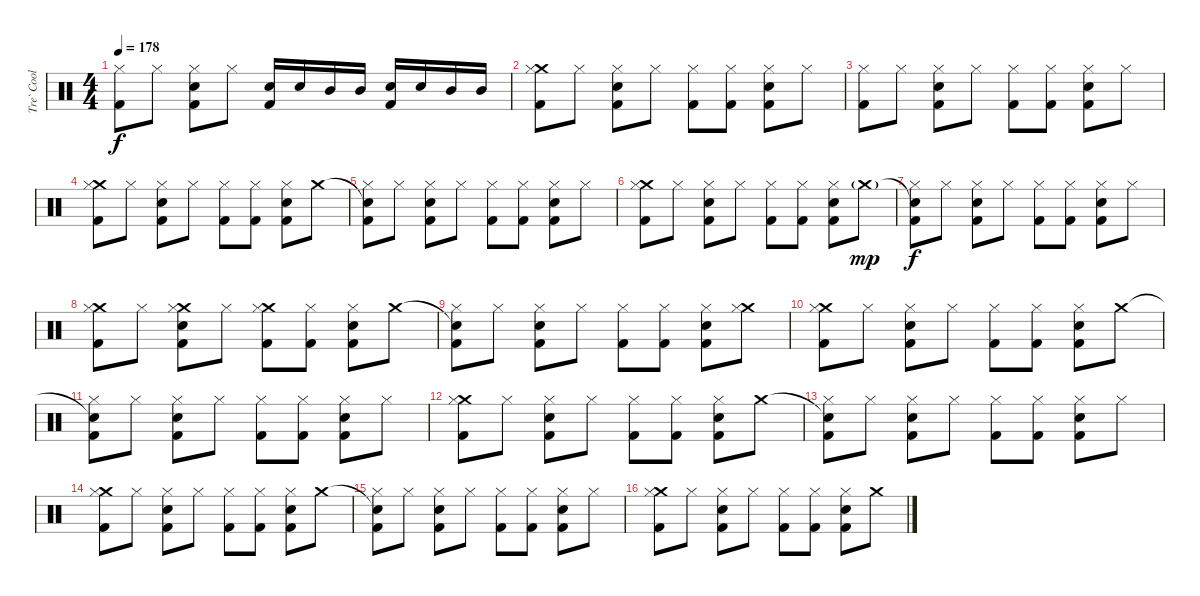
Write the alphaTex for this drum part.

\track ("Tre` Cool (Drums)" "Tre` Cool ") {instrument percussion}
\staff {score}
\articulation defaults
\ts (4 4)
\tempo 178
\clef neutral
\ks c
("Hi-Hat (closed)" "Kick (hit) 2").8{dy f} "Hi-Hat (closed)".8 ("Hi-Hat (closed)" "Snare (hit) 2" "Kick (hit) 2").8 "Hi-Hat (closed)".8 ("Snare (hit) 2" "Kick (hit) 2").16 "Snare (hit) 2".16 "Mid Tom (hit)".16 "Mid Tom (hit)".16 ("Snare (hit) 2" "Kick (hit) 2").16 "Snare (hit) 2".16 "Mid Tom (hit)".16 "Mid Tom (hit)".16 |
("Crash medium (hit)" "Hi-Hat (closed)" "Kick (hit) 2").8 "Hi-Hat (closed)".8 ("Hi-Hat (closed)" "Snare (hit) 2" "Kick (hit) 2").8 "Hi-Hat (closed)".8 ("Hi-Hat (closed)" "Kick (hit) 2").8 ("Hi-Hat (closed)" "Kick (hit) 2").8 ("Hi-Hat (closed)" "Snare (hit) 2" "Kick (hit) 2").8 "Hi-Hat (closed)".8 |
("Hi-Hat (closed)" "Kick (hit) 2").8 "Hi-Hat (closed)".8 ("Hi-Hat (closed)" "Snare (hit) 2" "Kick (hit) 2").8 "Hi-Hat (closed)".8 ("Hi-Hat (closed)" "Kick (hit) 2").8 ("Hi-Hat (closed)" "Kick (hit) 2").8 ("Hi-Hat (closed)" "Snare (hit) 2" "Kick (hit) 2").8 "Hi-Hat (closed)".8 |
("Crash medium (hit)" "Hi-Hat (closed)" "Kick (hit) 2").8 "Hi-Hat (closed)".8 ("Hi-Hat (closed)" "Snare (hit) 2" "Kick (hit) 2").8 "Hi-Hat (closed)".8 ("Hi-Hat (closed)" "Kick (hit) 2").8 ("Hi-Hat (closed)" "Kick (hit) 2").8 ("Hi-Hat (closed)" "Snare (hit) 2" "Kick (hit) 2").8 "Crash medium (hit)".8 |
("Snare (hit)"{t} "Hi-Hat (closed)" "Kick (hit) 2").8 "Hi-Hat (closed)".8 ("Hi-Hat (closed)" "Snare (hit) 2" "Kick (hit) 2").8 "Hi-Hat (closed)".8 ("Hi-Hat (closed)" "Kick (hit) 2").8 ("Hi-Hat (closed)" "Kick (hit) 2").8 ("Hi-Hat (closed)" "Snare (hit) 2" "Kick (hit) 2").8 "Hi-Hat (closed)".8 |
("Crash medium (hit)" "Hi-Hat (closed)" "Kick (hit) 2").8 "Hi-Hat (closed)".8 ("Hi-Hat (closed)" "Snare (hit) 2" "Kick (hit) 2").8 "Hi-Hat (closed)".8 ("Hi-Hat (closed)" "Kick (hit) 2").8 ("Hi-Hat (closed)" "Kick (hit) 2").8 ("Hi-Hat (closed)" "Snare (hit) 2" "Kick (hit) 2").8 "Crash medium (hit)"{g}.8{dy mp} |
("Snare (hit)"{t} "Hi-Hat (closed)" "Kick (hit) 2").8{dy f} "Hi-Hat (closed)".8 ("Hi-Hat (closed)" "Snare (hit) 2" "Kick (hit) 2").8 "Hi-Hat (closed)".8 ("Hi-Hat (closed)" "Kick (hit) 2").8 ("Hi-Hat (closed)" "Kick (hit) 2").8 ("Hi-Hat (closed)" "Snare (hit) 2" "Kick (hit) 2").8 "Hi-Hat (closed)".8 |
("Crash medium (hit)" "Hi-Hat (closed)" "Kick (hit) 2").8 "Hi-Hat (closed)".8 ("Crash medium (hit)" "Hi-Hat (closed)" "Snare (hit) 2" "Kick (hit) 2").8 "Hi-Hat (closed)".8 ("Crash medium (hit)" "Hi-Hat (closed)" "Kick (hit) 2").8 ("Hi-Hat (closed)" "Kick (hit) 2").8 ("Hi-Hat (closed)" "Snare (hit) 2" "Kick (hit) 2").8 "Crash medium (hit)".8 |
("Snare (hit)"{t} "Hi-Hat (closed)" "Kick (hit) 2").8 "Hi-Hat (closed)".8 ("Hi-Hat (closed)" "Snare (hit) 2" "Kick (hit) 2").8 "Hi-Hat (closed)".8 ("Hi-Hat (closed)" "Kick (hit) 2").8 ("Hi-Hat (closed)" "Kick (hit) 2").8 ("Hi-Hat (closed)" "Snare (hit) 2" "Kick (hit) 2").8 ("Crash medium (hit)" "Hi-Hat (closed)").8 |
("Crash medium (hit)" "Hi-Hat (closed)" "Kick (hit) 2").8 "Hi-Hat (closed)".8 ("Hi-Hat (closed)" "Snare (hit) 2" "Kick (hit) 2").8 "Hi-Hat (closed)".8 ("Hi-Hat (closed)" "Kick (hit) 2").8 ("Hi-Hat (closed)" "Kick (hit) 2").8 ("Hi-Hat (closed)" "Snare (hit) 2" "Kick (hit) 2").8 "Crash medium (hit)".8 |
("Snare (hit)"{t} "Hi-Hat (closed)" "Kick (hit) 2").8 "Hi-Hat (closed)".8 ("Hi-Hat (closed)" "Snare (hit) 2" "Kick (hit) 2").8 "Hi-Hat (closed)".8 ("Hi-Hat (closed)" "Kick (hit) 2").8 ("Hi-Hat (closed)" "Kick (hit) 2").8 ("Hi-Hat (closed)" "Snare (hit) 2" "Kick (hit) 2").8 "Hi-Hat (closed)".8 |
("Crash medium (hit)" "Hi-Hat (closed)" "Kick (hit) 2").8 "Hi-Hat (closed)".8 ("Hi-Hat (closed)" "Snare (hit) 2" "Kick (hit) 2").8 "Hi-Hat (closed)".8 ("Hi-Hat (closed)" "Kick (hit) 2").8 ("Hi-Hat (closed)" "Kick (hit) 2").8 ("Hi-Hat (closed)" "Snare (hit) 2" "Kick (hit) 2").8 "Crash medium (hit)".8 |
("Snare (hit)"{t} "Hi-Hat (closed)" "Kick (hit) 2").8 "Hi-Hat (closed)".8 ("Hi-Hat (closed)" "Snare (hit) 2" "Kick (hit) 2").8 "Hi-Hat (closed)".8 ("Hi-Hat (closed)" "Kick (hit) 2").8 ("Hi-Hat (closed)" "Kick (hit) 2").8 ("Hi-Hat (closed)" "Snare (hit) 2" "Kick (hit) 2").8 "Hi-Hat (closed)".8 |
("Crash medium (hit)" "Hi-Hat (closed)" "Kick (hit) 2").8 "Hi-Hat (closed)".8 ("Hi-Hat (closed)" "Snare (hit) 2" "Kick (hit) 2").8 "Hi-Hat (closed)".8 ("Hi-Hat (closed)" "Kick (hit) 2").8 ("Hi-Hat (closed)" "Kick (hit) 2").8 ("Hi-Hat (closed)" "Snare (hit) 2" "Kick (hit) 2").8 "Crash medium (hit)".8 |
("Snare (hit)"{t} "Hi-Hat (closed)" "Kick (hit) 2").8 "Hi-Hat (closed)".8 ("Hi-Hat (closed)" "Snare (hit) 2" "Kick (hit) 2").8 "Hi-Hat (closed)".8 ("Hi-Hat (closed)" "Kick (hit) 2").8 ("Hi-Hat (closed)" "Kick (hit) 2").8 ("Hi-Hat (closed)" "Snare (hit) 2" "Kick (hit) 2").8 "Hi-Hat (closed)".8 |
("Crash medium (hit)" "Hi-Hat (closed)" "Kick (hit) 2").8 "Hi-Hat (closed)".8 ("Hi-Hat (closed)" "Snare (hit) 2" "Kick (hit) 2").8 "Hi-Hat (closed)".8 ("Hi-Hat (closed)" "Kick (hit) 2").8 ("Hi-Hat (closed)" "Kick (hit) 2").8 ("Hi-Hat (closed)" "Snare (hit) 2" "Kick (hit) 2").8 "Crash medium (hit)".8
